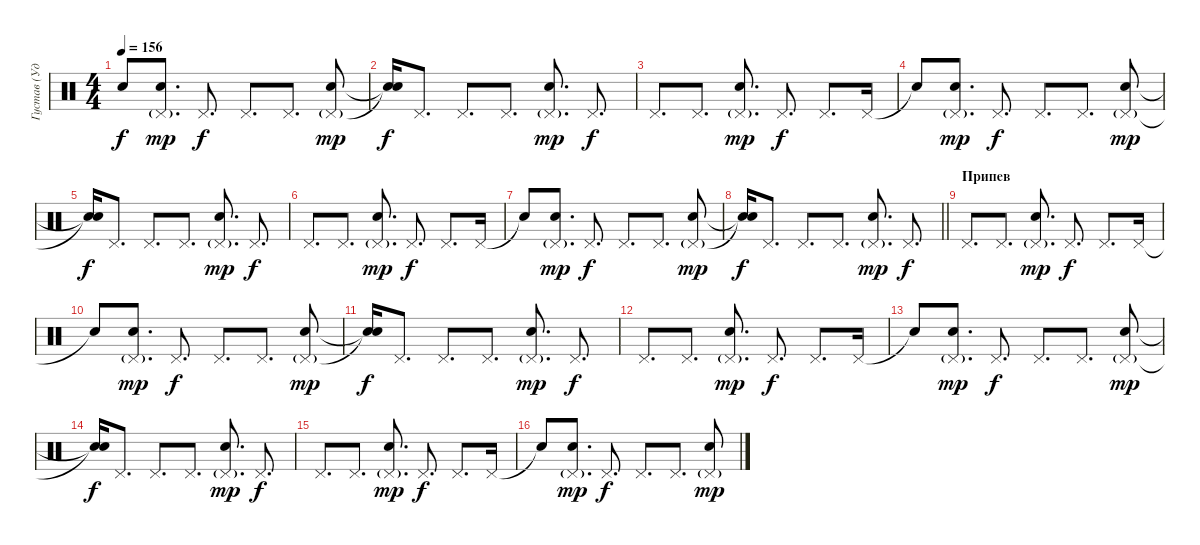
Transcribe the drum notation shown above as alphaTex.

\track ("Густав (Ударные)" "Густав (Уд") {instrument percussion}
\staff {score}
\articulation defaults
\ts (4 4)
\tempo 156
\clef neutral
\ks c "Snare (hit)"{t}.8{dy f}
("Pedal Hi-Hat (hit)"{g} "Electric Snare (hit)").8{d dy mp} "Pedal Hi-Hat (hit)".8{d dy f} "Pedal Hi-Hat (hit)".8{d} "Pedal Hi-Hat (hit)".8{d} ("Pedal Hi-Hat (hit)"{g} "Electric Snare (hit)").8{dy mp} |
("Snare (hit)"{t} "Snare (hit)"{t}).16{dy f} "Pedal Hi-Hat (hit)".8{d} "Pedal Hi-Hat (hit)".8{d} "Pedal Hi-Hat (hit)".8{d} ("Pedal Hi-Hat (hit)"{g} "Electric Snare (hit)").8{d dy mp} "Pedal Hi-Hat (hit)".8{d dy f} |
"Pedal Hi-Hat (hit)".8{d} "Pedal Hi-Hat (hit)".8{d} ("Pedal Hi-Hat (hit)"{g} "Electric Snare (hit)").8{d dy mp} "Pedal Hi-Hat (hit)".8{d dy f} "Pedal Hi-Hat (hit)".8{d} "Pedal Hi-Hat (hit)".16 |
"Snare (hit)"{t}.8 ("Pedal Hi-Hat (hit)"{g} "Electric Snare (hit)").8{d dy mp} "Pedal Hi-Hat (hit)".8{d dy f} "Pedal Hi-Hat (hit)".8{d} "Pedal Hi-Hat (hit)".8{d} ("Pedal Hi-Hat (hit)"{g} "Electric Snare (hit)").8{dy mp} |
("Snare (hit)"{t} "Snare (hit)"{t}).16{dy f} "Pedal Hi-Hat (hit)".8{d} "Pedal Hi-Hat (hit)".8{d} "Pedal Hi-Hat (hit)".8{d} ("Pedal Hi-Hat (hit)"{g} "Electric Snare (hit)").8{d dy mp} "Pedal Hi-Hat (hit)".8{d dy f} |
"Pedal Hi-Hat (hit)".8{d} "Pedal Hi-Hat (hit)".8{d} ("Pedal Hi-Hat (hit)"{g} "Electric Snare (hit)").8{d dy mp} "Pedal Hi-Hat (hit)".8{d dy f} "Pedal Hi-Hat (hit)".8{d} "Pedal Hi-Hat (hit)".16 |
"Snare (hit)"{t}.8 ("Pedal Hi-Hat (hit)"{g} "Electric Snare (hit)").8{d dy mp} "Pedal Hi-Hat (hit)".8{d dy f} "Pedal Hi-Hat (hit)".8{d} "Pedal Hi-Hat (hit)".8{d} ("Pedal Hi-Hat (hit)"{g} "Electric Snare (hit)").8{dy mp} |
\barLineRight lightlight
("Snare (hit)"{t} "Snare (hit)"{t}).16{dy f} "Pedal Hi-Hat (hit)".8{d} "Pedal Hi-Hat (hit)".8{d} "Pedal Hi-Hat (hit)".8{d} ("Pedal Hi-Hat (hit)"{g} "Electric Snare (hit)").8{d dy mp} "Pedal Hi-Hat (hit)".8{d dy f} |
\section ("" "Припев")
"Pedal Hi-Hat (hit)".8{d} "Pedal Hi-Hat (hit)".8{d} ("Pedal Hi-Hat (hit)"{g} "Electric Snare (hit)").8{d dy mp} "Pedal Hi-Hat (hit)".8{d dy f} "Pedal Hi-Hat (hit)".8{d} "Pedal Hi-Hat (hit)".16 |
"Snare (hit)"{t}.8 ("Pedal Hi-Hat (hit)"{g} "Electric Snare (hit)").8{d dy mp} "Pedal Hi-Hat (hit)".8{d dy f} "Pedal Hi-Hat (hit)".8{d} "Pedal Hi-Hat (hit)".8{d} ("Pedal Hi-Hat (hit)"{g} "Electric Snare (hit)").8{dy mp} |
("Snare (hit)"{t} "Snare (hit)"{t}).16{dy f} "Pedal Hi-Hat (hit)".8{d} "Pedal Hi-Hat (hit)".8{d} "Pedal Hi-Hat (hit)".8{d} ("Pedal Hi-Hat (hit)"{g} "Electric Snare (hit)").8{d dy mp} "Pedal Hi-Hat (hit)".8{d dy f} |
"Pedal Hi-Hat (hit)".8{d} "Pedal Hi-Hat (hit)".8{d} ("Pedal Hi-Hat (hit)"{g} "Electric Snare (hit)").8{d dy mp} "Pedal Hi-Hat (hit)".8{d dy f} "Pedal Hi-Hat (hit)".8{d} "Pedal Hi-Hat (hit)".16 |
"Snare (hit)"{t}.8 ("Pedal Hi-Hat (hit)"{g} "Electric Snare (hit)").8{d dy mp} "Pedal Hi-Hat (hit)".8{d dy f} "Pedal Hi-Hat (hit)".8{d} "Pedal Hi-Hat (hit)".8{d} ("Pedal Hi-Hat (hit)"{g} "Electric Snare (hit)").8{dy mp} |
("Snare (hit)"{t} "Snare (hit)"{t}).16{dy f} "Pedal Hi-Hat (hit)".8{d} "Pedal Hi-Hat (hit)".8{d} "Pedal Hi-Hat (hit)".8{d} ("Pedal Hi-Hat (hit)"{g} "Electric Snare (hit)").8{d dy mp} "Pedal Hi-Hat (hit)".8{d dy f} |
"Pedal Hi-Hat (hit)".8{d} "Pedal Hi-Hat (hit)".8{d} ("Pedal Hi-Hat (hit)"{g} "Electric Snare (hit)").8{d dy mp} "Pedal Hi-Hat (hit)".8{d dy f} "Pedal Hi-Hat (hit)".8{d} "Pedal Hi-Hat (hit)".16 |
"Snare (hit)"{t}.8 ("Pedal Hi-Hat (hit)"{g} "Electric Snare (hit)").8{d dy mp} "Pedal Hi-Hat (hit)".8{d dy f} "Pedal Hi-Hat (hit)".8{d} "Pedal Hi-Hat (hit)".8{d} ("Pedal Hi-Hat (hit)"{g} "Electric Snare (hit)").8{dy mp}
